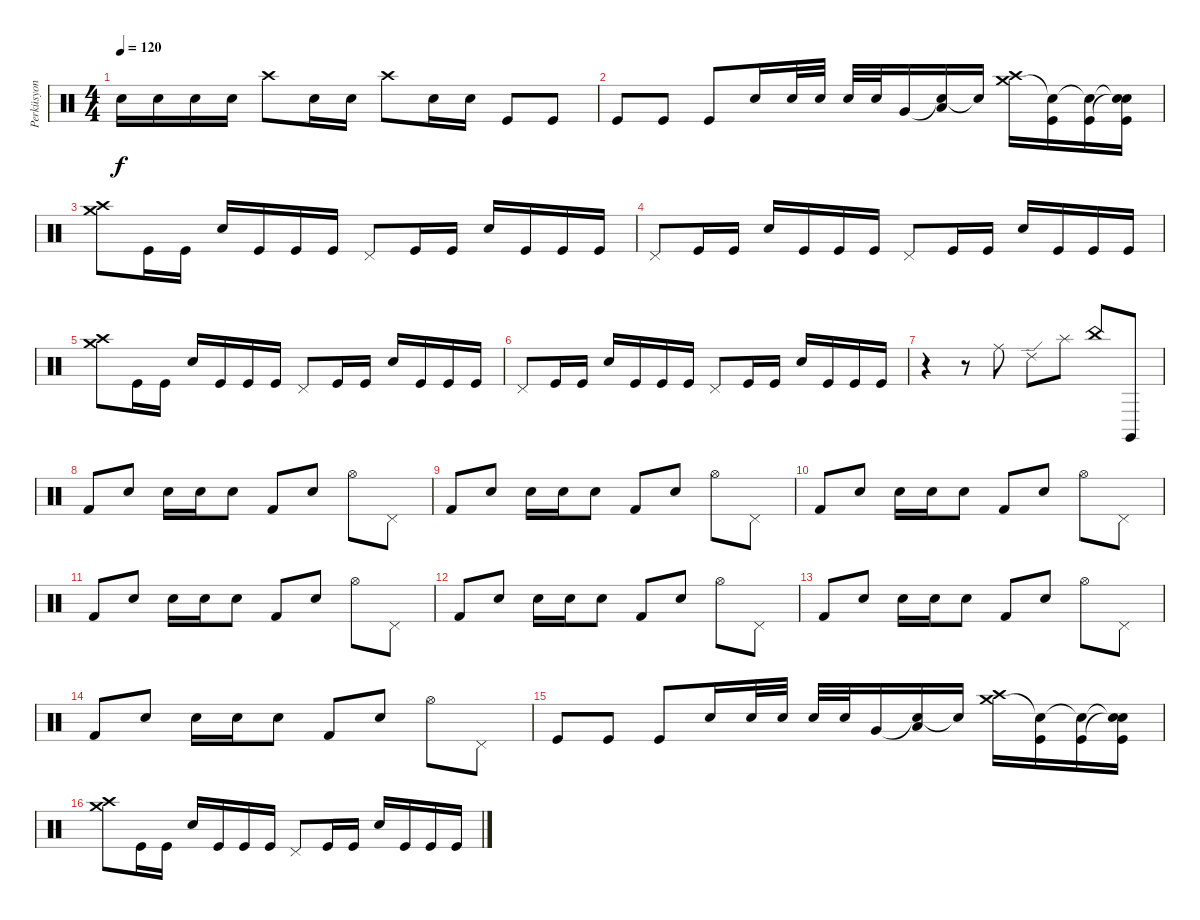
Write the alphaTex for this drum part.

\track ("Perküsyon" "Perküsyon") {instrument percussion}
\staff {score}
\articulation defaults
\ts (4 4)
\tempo 120
\clef neutral
\ks c "Electric Snare (hit)".16{dy f} "Electric Snare (hit)".16 "Electric Snare (hit)".16 "Electric Snare (hit)".16 "Crash high (hit)".8 "Electric Snare (hit)".16 "Electric Snare (hit)".16 "Crash high (hit)".8 "Electric Snare (hit)".16 "Electric Snare (hit)".16 "Kick (hit)".8 "Kick (hit)".8
|
"Kick (hit)".8 "Kick (hit)".8 "Kick (hit)".8 "Snare (hit) 2".16 "Electric Snare (hit)".32 "Electric Snare (hit)".32 "Electric Snare (hit)".32 "Electric Snare (hit)".32 "Very Low Tom (hit)".16 ("Snare (hit)"{t} "Low Floor Tom (hit)").16 "Snare (hit)"{t}.16 ("Crash medium (hit)" "Crash high (hit)").16 ("Snare (hit)"{t} "Kick (hit)").16 ("Snare (hit)"{t} "Kick (hit)").16 ("Snare (hit)"{t} "Snare (hit)"{t} "Kick (hit)").16 |
("Crash high (hit)" "Crash medium (hit)").8 "Kick (hit)".16 "Kick (hit)".16 "Snare (hit) 2".16 "Kick (hit)".16 "Kick (hit)".16 "Kick (hit)".16 "Pedal Hi-Hat (hit)".8 "Kick (hit)".16 "Kick (hit)".16 "Snare (hit) 2".16 "Kick (hit)".16 "Kick (hit)".16 "Kick (hit)".16 |
"Pedal Hi-Hat (hit)".8 "Kick (hit)".16 "Kick (hit)".16 "Snare (hit) 2".16 "Kick (hit)".16 "Kick (hit)".16 "Kick (hit)".16 "Pedal Hi-Hat (hit)".8 "Kick (hit)".16 "Kick (hit)".16 "Snare (hit) 2".16 "Kick (hit)".16 "Kick (hit)".16 "Kick (hit)".16 |
("Crash high (hit)" "Crash medium (hit)").8 "Kick (hit)".16 "Kick (hit)".16 "Snare (hit) 2".16 "Kick (hit)".16 "Kick (hit)".16 "Kick (hit)".16 "Pedal Hi-Hat (hit)".8 "Kick (hit)".16 "Kick (hit)".16 "Snare (hit) 2".16 "Kick (hit)".16 "Kick (hit)".16 "Kick (hit)".16 |
"Pedal Hi-Hat (hit)".8 "Kick (hit)".16 "Kick (hit)".16 "Snare (hit) 2".16 "Kick (hit)".16 "Kick (hit)".16 "Kick (hit)".16 "Pedal Hi-Hat (hit)".8 "Kick (hit)".16 "Kick (hit)".16 "Snare (hit) 2".16 "Kick (hit)".16 "Kick (hit)".16 "Kick (hit)".16 |
r.4 r.8 "Ride (middle)".8 "Ride (edge) 2".8 "Splash (hit)".8 "China (hit)".8 "Claves (hit)".8 |
"Kick (hit) 2".8 "Electric Snare (hit)".8 "Snare (hit) 2".16 "Snare (hit) 2".16 "Electric Snare (hit)".8 "Kick (hit) 2".8 "Electric Snare (hit)".8 "Hi-Hat (open)".8 "Pedal Hi-Hat (hit)".8 |
"Kick (hit) 2".8 "Electric Snare (hit)".8 "Snare (hit) 2".16 "Snare (hit) 2".16 "Electric Snare (hit)".8 "Kick (hit) 2".8 "Electric Snare (hit)".8 "Hi-Hat (open)".8 "Pedal Hi-Hat (hit)".8 |
"Kick (hit) 2".8 "Electric Snare (hit)".8 "Snare (hit) 2".16 "Snare (hit) 2".16 "Electric Snare (hit)".8 "Kick (hit) 2".8 "Electric Snare (hit)".8 "Hi-Hat (open)".8 "Pedal Hi-Hat (hit)".8 |
"Kick (hit) 2".8 "Electric Snare (hit)".8 "Snare (hit) 2".16 "Snare (hit) 2".16 "Electric Snare (hit)".8 "Kick (hit) 2".8 "Electric Snare (hit)".8 "Hi-Hat (open)".8 "Pedal Hi-Hat (hit)".8 |
"Kick (hit) 2".8 "Electric Snare (hit)".8 "Snare (hit) 2".16 "Snare (hit) 2".16 "Electric Snare (hit)".8 "Kick (hit) 2".8 "Electric Snare (hit)".8 "Hi-Hat (open)".8 "Pedal Hi-Hat (hit)".8 |
"Kick (hit) 2".8 "Electric Snare (hit)".8 "Snare (hit) 2".16 "Snare (hit) 2".16 "Electric Snare (hit)".8 "Kick (hit) 2".8 "Electric Snare (hit)".8 "Hi-Hat (open)".8 "Pedal Hi-Hat (hit)".8 |
"Kick (hit) 2".8 "Electric Snare (hit)".8 "Snare (hit) 2".16 "Snare (hit) 2".16 "Electric Snare (hit)".8 "Kick (hit) 2".8 "Electric Snare (hit)".8 "Hi-Hat (open)".8 "Pedal Hi-Hat (hit)".8 |
"Kick (hit)".8 "Kick (hit)".8 "Kick (hit)".8 "Snare (hit) 2".16 "Electric Snare (hit)".32 "Electric Snare (hit)".32 "Electric Snare (hit)".32 "Electric Snare (hit)".32 "Very Low Tom (hit)".16 ("Snare (hit)"{t} "Low Floor Tom (hit)").16 "Snare (hit)"{t}.16 ("Crash medium (hit)" "Crash high (hit)").16 ("Snare (hit)"{t} "Kick (hit)").16 ("Snare (hit)"{t} "Kick (hit)").16 ("Snare (hit)"{t} "Snare (hit)"{t} "Kick (hit)").16 |
("Crash high (hit)" "Crash medium (hit)").8 "Kick (hit)".16 "Kick (hit)".16 "Snare (hit) 2".16 "Kick (hit)".16 "Kick (hit)".16 "Kick (hit)".16 "Pedal Hi-Hat (hit)".8 "Kick (hit)".16 "Kick (hit)".16 "Snare (hit) 2".16 "Kick (hit)".16 "Kick (hit)".16 "Kick (hit)".16
